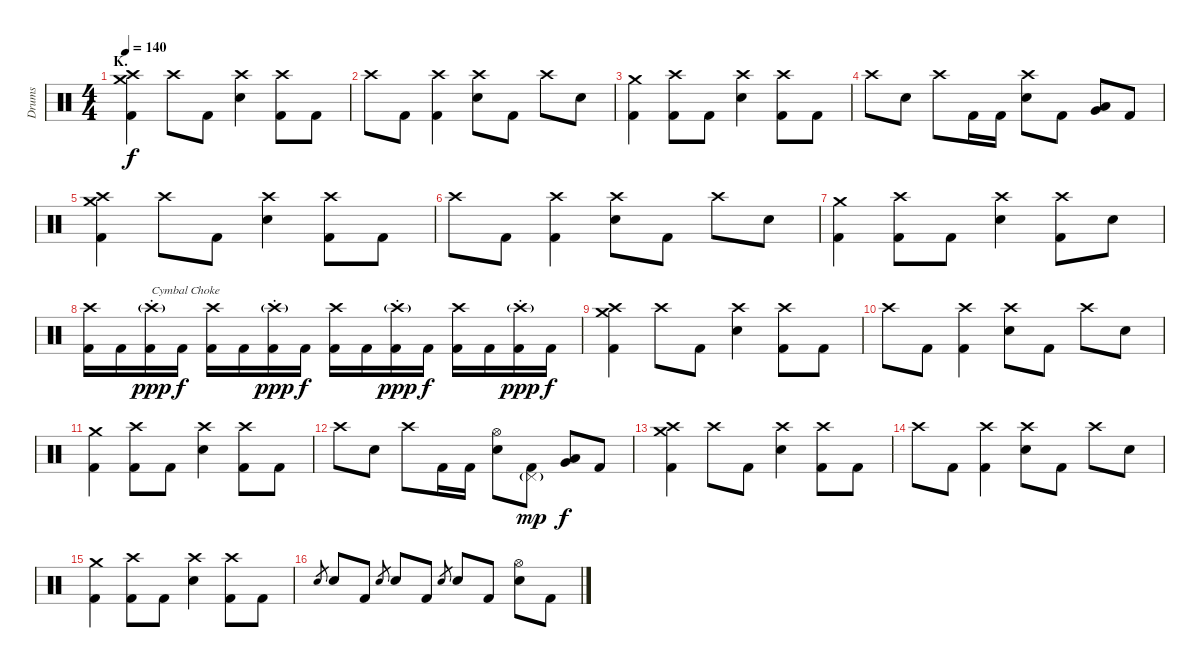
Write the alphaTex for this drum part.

\track ("Drums" "Drums") {instrument percussion}
\staff {score}
\articulation defaults
\ts (4 4)
\section ("" "K.")
\tempo 140
\clef neutral
\ks c
("Crash medium (hit)" "Crash high (hit)" "Kick (hit) 2").4{dy f} "Crash high (hit)".8 "Kick (hit) 2".8 ("Crash high (hit)" "Electric Snare (hit)").4 ("Crash high (hit)" "Kick (hit) 2").8 "Kick (hit) 2".8 |
"Crash high (hit)".8 "Kick (hit) 2".8 ("Crash high (hit)" "Kick (hit) 2").4 ("Crash high (hit)" "Electric Snare (hit)").8 "Kick (hit) 2".8 "Crash high (hit)".8 "Electric Snare (hit)".8 |
("Crash medium (hit)" "Kick (hit) 2").4 ("Crash high (hit)" "Kick (hit) 2").8 "Kick (hit) 2".8 ("Crash high (hit)" "Electric Snare (hit)").4 ("Crash high (hit)" "Kick (hit) 2").8 "Kick (hit) 2".8 |
"Crash high (hit)".8 "Electric Snare (hit)".8 "Crash high (hit)".8 "Kick (hit) 2".16 "Kick (hit) 2".16 ("Crash high (hit)" "Electric Snare (hit)").8 "Kick (hit) 2".8 ("Low Tom (hit)" "Very Low Tom (hit)").8{bu 120} "Kick (hit) 2".8 |
("Crash medium (hit)" "Crash high (hit)" "Kick (hit) 2").4 "Crash high (hit)".8 "Kick (hit) 2".8 ("Crash high (hit)" "Electric Snare (hit)").4 ("Crash high (hit)" "Kick (hit) 2").8 "Kick (hit) 2".8 |
"Crash high (hit)".8 "Kick (hit) 2".8 ("Crash high (hit)" "Kick (hit) 2").4 ("Crash high (hit)" "Electric Snare (hit)").8 "Kick (hit) 2".8 "Crash high (hit)".8 "Electric Snare (hit)".8 |
("Crash medium (hit)" "Kick (hit) 2").4 ("Crash high (hit)" "Kick (hit) 2").8 "Kick (hit) 2".8 ("Crash high (hit)" "Electric Snare (hit)").4 ("Crash high (hit)" "Kick (hit) 2").8 "Electric Snare (hit)".8 |
("Crash high (hit)" "Kick (hit) 2").16 "Kick (hit) 2".16 ("Crash high (hit)"{g st} "Kick (hit) 2").16{txt "Cymbal Choke" dy ppp} "Kick (hit) 2".16{dy f} ("Crash high (hit)" "Kick (hit) 2").16 "Kick (hit) 2".16 ("Crash high (hit)"{g st} "Kick (hit) 2").16{dy ppp} "Kick (hit) 2".16{dy f} ("Crash high (hit)" "Kick (hit) 2").16 "Kick (hit) 2".16 ("Crash high (hit)"{g st} "Kick (hit) 2").16{dy ppp} "Kick (hit) 2".16{dy f} ("Crash high (hit)" "Kick (hit) 2").16 "Kick (hit) 2".16 ("Crash high (hit)"{g st} "Kick (hit) 2").16{dy ppp} "Kick (hit) 2".16{dy f} |
("Crash medium (hit)" "Crash high (hit)" "Kick (hit) 2").4 "Crash high (hit)".8 "Kick (hit) 2".8 ("Crash high (hit)" "Electric Snare (hit)").4 ("Crash high (hit)" "Kick (hit) 2").8 "Kick (hit) 2".8 |
"Crash high (hit)".8 "Kick (hit) 2".8 ("Crash high (hit)" "Kick (hit) 2").4 ("Crash high (hit)" "Electric Snare (hit)").8 "Kick (hit) 2".8 "Crash high (hit)".8 "Electric Snare (hit)".8 |
("Crash medium (hit)" "Kick (hit) 2").4 ("Crash high (hit)" "Kick (hit) 2").8 "Kick (hit) 2".8 ("Crash high (hit)" "Electric Snare (hit)").4 ("Crash high (hit)" "Kick (hit) 2").8 "Kick (hit) 2".8 |
"Crash high (hit)".8 "Electric Snare (hit)".8 "Crash high (hit)".8 "Kick (hit) 2".16 "Kick (hit) 2".16 ("Hi-Hat (open)" "Electric Snare (hit)").8 ("Pedal Hi-Hat (hit)"{g} "Kick (hit) 2").8{dy mp} ("Low Tom (hit)" "Very Low Tom (hit)").8{bu 120 dy f} "Kick (hit) 2".8 |
("Crash medium (hit)" "Crash high (hit)" "Kick (hit) 2").4 "Crash high (hit)".8 "Kick (hit) 2".8 ("Crash high (hit)" "Electric Snare (hit)").4 ("Crash high (hit)" "Kick (hit) 2").8 "Kick (hit) 2".8 |
"Crash high (hit)".8 "Kick (hit) 2".8 ("Crash high (hit)" "Kick (hit) 2").4 ("Crash high (hit)" "Electric Snare (hit)").8 "Kick (hit) 2".8 "Crash high (hit)".8 "Electric Snare (hit)".8 |
("Crash medium (hit)" "Kick (hit) 2").4 ("Crash high (hit)" "Kick (hit) 2").8 "Kick (hit) 2".8 ("Crash high (hit)" "Electric Snare (hit)").4 ("Crash high (hit)" "Kick (hit) 2").8 "Kick (hit) 2".8 |
"Electric Snare (hit)".8{gr} "Electric Snare (hit)".8 "Kick (hit) 2".8 "Electric Snare (hit)".8{gr} "Electric Snare (hit)".8 "Kick (hit) 2".8 "Electric Snare (hit)".8{gr} "Electric Snare (hit)".8 "Kick (hit) 2".8 ("Hi-Hat (open)" "Electric Snare (hit)").8 "Kick (hit) 2".8
